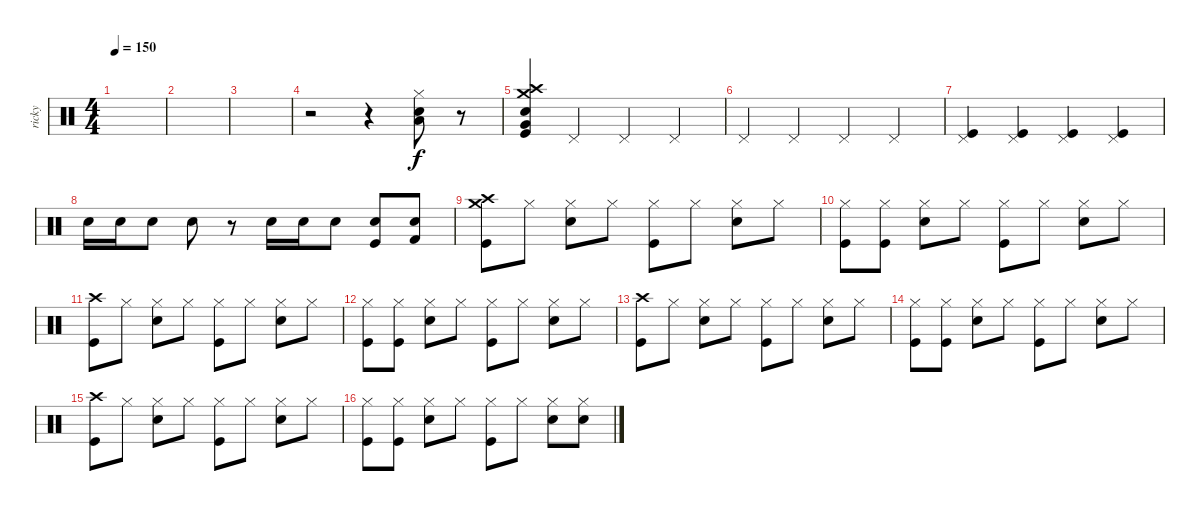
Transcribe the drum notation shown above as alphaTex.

\track ("ricky" "ricky") {instrument percussion}
\staff {score}
\articulation defaults
\ts (4 4)
\tempo 150
\clef neutral
\ks c
|
|
|
r.2 r.4 ("Hi-Hat (closed)" "Low Tom (hit)" "Electric Snare (hit)").8 r.8 |
("Crash high (hit)" "Crash medium (hit)" "Very Low Tom (hit)" "Electric Snare (hit)" "Kick (hit)").4 "Pedal Hi-Hat (hit)".4 "Pedal Hi-Hat (hit)".4 "Pedal Hi-Hat (hit)".4 |
"Pedal Hi-Hat (hit)".4 "Pedal Hi-Hat (hit)".4 "Pedal Hi-Hat (hit)".4 "Pedal Hi-Hat (hit)".4 |
("Pedal Hi-Hat (hit)" "Kick (hit)").4 ("Pedal Hi-Hat (hit)" "Kick (hit)").4 ("Pedal Hi-Hat (hit)" "Kick (hit)").4 ("Pedal Hi-Hat (hit)" "Kick (hit)").4 |
"Electric Snare (hit)".16 "Electric Snare (hit)".16 "Electric Snare (hit)".8 "Electric Snare (hit)".8 r.8 "Electric Snare (hit)".16 "Electric Snare (hit)".16 "Electric Snare (hit)".8 ("Electric Snare (hit)" "Kick (hit)").8 ("Electric Snare (hit)" "Kick (hit) 2").8 |
("Crash medium (hit)" "Crash high (hit)" "Kick (hit)").8 "Hi-Hat (closed)".8 ("Hi-Hat (closed)" "Electric Snare (hit)").8 "Hi-Hat (closed)".8 ("Hi-Hat (closed)" "Kick (hit)").8 "Hi-Hat (closed)".8 ("Hi-Hat (closed)" "Electric Snare (hit)").8 "Hi-Hat (closed)".8 |
("Hi-Hat (closed)" "Kick (hit)").8 ("Hi-Hat (closed)" "Kick (hit)").8 ("Hi-Hat (closed)" "Electric Snare (hit)").8 "Hi-Hat (closed)".8 ("Hi-Hat (closed)" "Kick (hit)").8 "Hi-Hat (closed)".8 ("Hi-Hat (closed)" "Electric Snare (hit)").8 "Hi-Hat (closed)".8 |
("Crash high (hit)" "Kick (hit)").8 "Hi-Hat (closed)".8 ("Hi-Hat (closed)" "Electric Snare (hit)").8 "Hi-Hat (closed)".8 ("Hi-Hat (closed)" "Kick (hit)").8 "Hi-Hat (closed)".8 ("Hi-Hat (closed)" "Electric Snare (hit)").8 "Hi-Hat (closed)".8 |
("Hi-Hat (closed)" "Kick (hit)").8 ("Hi-Hat (closed)" "Kick (hit)").8 ("Hi-Hat (closed)" "Electric Snare (hit)").8 "Hi-Hat (closed)".8 ("Hi-Hat (closed)" "Kick (hit)").8 "Hi-Hat (closed)".8 ("Hi-Hat (closed)" "Electric Snare (hit)").8 "Hi-Hat (closed)".8 |
("Crash high (hit)" "Kick (hit)").8 "Hi-Hat (closed)".8 ("Hi-Hat (closed)" "Electric Snare (hit)").8 "Hi-Hat (closed)".8 ("Hi-Hat (closed)" "Kick (hit)").8 "Hi-Hat (closed)".8 ("Hi-Hat (closed)" "Electric Snare (hit)").8 "Hi-Hat (closed)".8 |
("Hi-Hat (closed)" "Kick (hit)").8 ("Hi-Hat (closed)" "Kick (hit)").8 ("Hi-Hat (closed)" "Electric Snare (hit)").8 "Hi-Hat (closed)".8 ("Hi-Hat (closed)" "Kick (hit)").8 "Hi-Hat (closed)".8 ("Hi-Hat (closed)" "Electric Snare (hit)").8 "Hi-Hat (closed)".8 |
("Crash high (hit)" "Kick (hit)").8 "Hi-Hat (closed)".8 ("Hi-Hat (closed)" "Electric Snare (hit)").8 "Hi-Hat (closed)".8 ("Hi-Hat (closed)" "Kick (hit)").8 "Hi-Hat (closed)".8 ("Hi-Hat (closed)" "Electric Snare (hit)").8 "Hi-Hat (closed)".8 |
("Hi-Hat (closed)" "Kick (hit)").8 ("Hi-Hat (closed)" "Kick (hit)").8 ("Hi-Hat (closed)" "Electric Snare (hit)").8 "Hi-Hat (closed)".8 ("Hi-Hat (closed)" "Kick (hit)").8 "Hi-Hat (closed)".8 ("Hi-Hat (closed)" "Electric Snare (hit)").8 ("Hi-Hat (closed)" "Electric Snare (hit)").8
